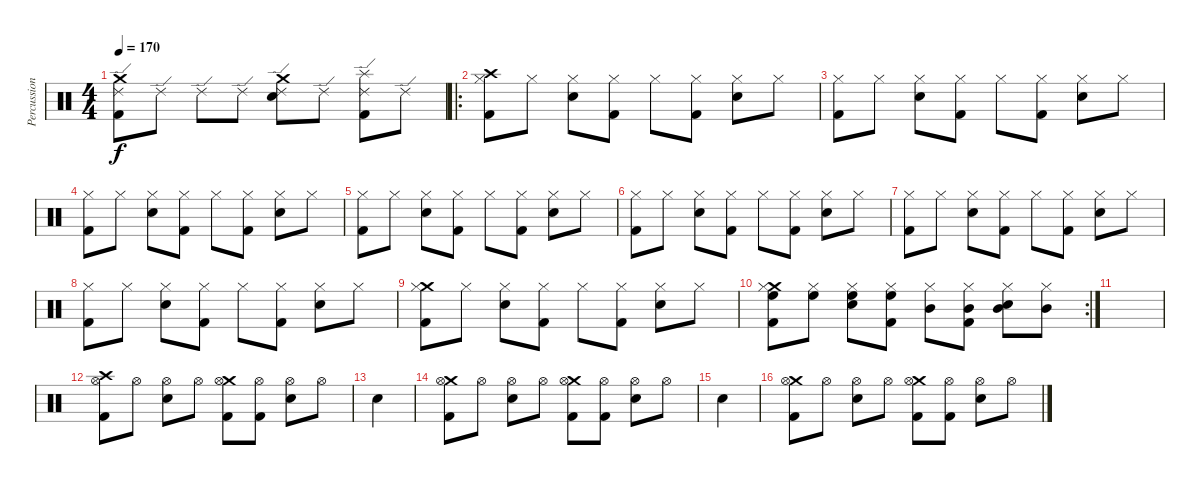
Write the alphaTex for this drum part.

\track ("Percussion" "Percussion") {instrument percussion}
\staff {score}
\articulation defaults
\ts (4 4)
\tempo 170
\clef neutral
\ks c
("Crash medium (hit)" "Kick (hit) 2" "Ride (edge) 2").8{dy f} "Ride (edge) 2".8 "Ride (edge) 2".8 "Ride (edge) 2".8 ("Crash medium (hit)" "Snare (hit) 2" "Ride (edge) 2").8 "Ride (edge) 2".8 ("Splash (hit)" "Kick (hit) 2" "Ride (edge) 2").8 "Ride (edge) 2".8 |
\ro
("Crash high (hit)" "Kick (hit) 2" "Hi-Hat (closed)").8 "Hi-Hat (closed)".8 ("Snare (hit) 2" "Hi-Hat (closed)").8 ("Kick (hit) 2" "Hi-Hat (closed)").8 "Hi-Hat (closed)".8 ("Kick (hit) 2" "Hi-Hat (closed)").8 ("Snare (hit) 2" "Hi-Hat (closed)").8 "Hi-Hat (closed)".8 |
("Kick (hit) 2" "Hi-Hat (closed)").8 "Hi-Hat (closed)".8 ("Snare (hit) 2" "Hi-Hat (closed)").8 ("Kick (hit) 2" "Hi-Hat (closed)").8 "Hi-Hat (closed)".8 ("Kick (hit) 2" "Hi-Hat (closed)").8 ("Snare (hit) 2" "Hi-Hat (closed)").8 "Hi-Hat (closed)".8 |
("Kick (hit) 2" "Hi-Hat (closed)").8 "Hi-Hat (closed)".8 ("Snare (hit) 2" "Hi-Hat (closed)").8 ("Kick (hit) 2" "Hi-Hat (closed)").8 "Hi-Hat (closed)".8 ("Kick (hit) 2" "Hi-Hat (closed)").8 ("Snare (hit) 2" "Hi-Hat (closed)").8 "Hi-Hat (closed)".8 |
("Kick (hit) 2" "Hi-Hat (closed)").8 "Hi-Hat (closed)".8 ("Snare (hit) 2" "Hi-Hat (closed)").8 ("Kick (hit) 2" "Hi-Hat (closed)").8 "Hi-Hat (closed)".8 ("Kick (hit) 2" "Hi-Hat (closed)").8 ("Snare (hit) 2" "Hi-Hat (closed)").8 "Hi-Hat (closed)".8 |
("Kick (hit) 2" "Hi-Hat (closed)").8 "Hi-Hat (closed)".8 ("Snare (hit) 2" "Hi-Hat (closed)").8 ("Kick (hit) 2" "Hi-Hat (closed)").8 "Hi-Hat (closed)".8 ("Kick (hit) 2" "Hi-Hat (closed)").8 ("Snare (hit) 2" "Hi-Hat (closed)").8 "Hi-Hat (closed)".8 |
("Kick (hit) 2" "Hi-Hat (closed)").8 "Hi-Hat (closed)".8 ("Snare (hit) 2" "Hi-Hat (closed)").8 ("Kick (hit) 2" "Hi-Hat (closed)").8 "Hi-Hat (closed)".8 ("Kick (hit) 2" "Hi-Hat (closed)").8 ("Snare (hit) 2" "Hi-Hat (closed)").8 "Hi-Hat (closed)".8 |
("Kick (hit) 2" "Hi-Hat (closed)").8 "Hi-Hat (closed)".8 ("Snare (hit) 2" "Hi-Hat (closed)").8 ("Kick (hit) 2" "Hi-Hat (closed)").8 "Hi-Hat (closed)".8 ("Kick (hit) 2" "Hi-Hat (closed)").8 ("Snare (hit) 2" "Hi-Hat (closed)").8 "Hi-Hat (closed)".8 |
("Crash medium (hit)" "Kick (hit) 2" "Hi-Hat (closed)").8 "Hi-Hat (closed)".8 ("Snare (hit) 2" "Hi-Hat (closed)").8 ("Kick (hit) 2" "Hi-Hat (closed)").8 "Hi-Hat (closed)".8 ("Kick (hit) 2" "Hi-Hat (closed)").8 ("Snare (hit) 2" "Hi-Hat (closed)").8 "Hi-Hat (closed)".8 |
\rc 2
("Crash medium (hit)" "High Floor Tom (hit)" "Kick (hit) 2" "Hi-Hat (closed)").8 ("High Floor Tom (hit)" "Hi-Hat (closed)").8 ("High Floor Tom (hit)" "Snare (hit) 2" "Hi-Hat (closed)").8 ("High Floor Tom (hit)" "Kick (hit) 2" "Hi-Hat (closed)").8 ("Mid Tom (hit)" "Hi-Hat (closed)").8 ("Mid Tom (hit)" "Kick (hit) 2" "Hi-Hat (closed)").8 ("Mid Tom (hit)" "Snare (hit) 2" "Hi-Hat (closed)").8 ("Mid Tom (hit)" "Hi-Hat (closed)").8 |
|
("Crash high (hit)" "Kick (hit) 2" "Hi-Hat (open)").8 "Hi-Hat (open)".8 ("Snare (hit) 2" "Hi-Hat (open)").8 "Hi-Hat (open)".8 ("Crash medium (hit)" "Kick (hit) 2" "Hi-Hat (open)").8 ("Kick (hit) 2" "Hi-Hat (open)").8 ("Snare (hit) 2" "Hi-Hat (open)").8 "Hi-Hat (open)".8 |
"Snare (hit) 2".4 |
("Crash medium (hit)" "Kick (hit) 2" "Hi-Hat (open)").8 "Hi-Hat (open)".8 ("Snare (hit) 2" "Hi-Hat (open)").8 "Hi-Hat (open)".8 ("Crash medium (hit)" "Kick (hit) 2" "Hi-Hat (open)").8 ("Kick (hit) 2" "Hi-Hat (open)").8 ("Snare (hit) 2" "Hi-Hat (open)").8 "Hi-Hat (open)".8 |
"Snare (hit) 2".4 |
("Crash medium (hit)" "Kick (hit) 2" "Hi-Hat (open)").8 "Hi-Hat (open)".8 ("Snare (hit) 2" "Hi-Hat (open)").8 "Hi-Hat (open)".8 ("Crash medium (hit)" "Kick (hit) 2" "Hi-Hat (open)").8 ("Kick (hit) 2" "Hi-Hat (open)").8 ("Snare (hit) 2" "Hi-Hat (open)").8 "Hi-Hat (open)".8
